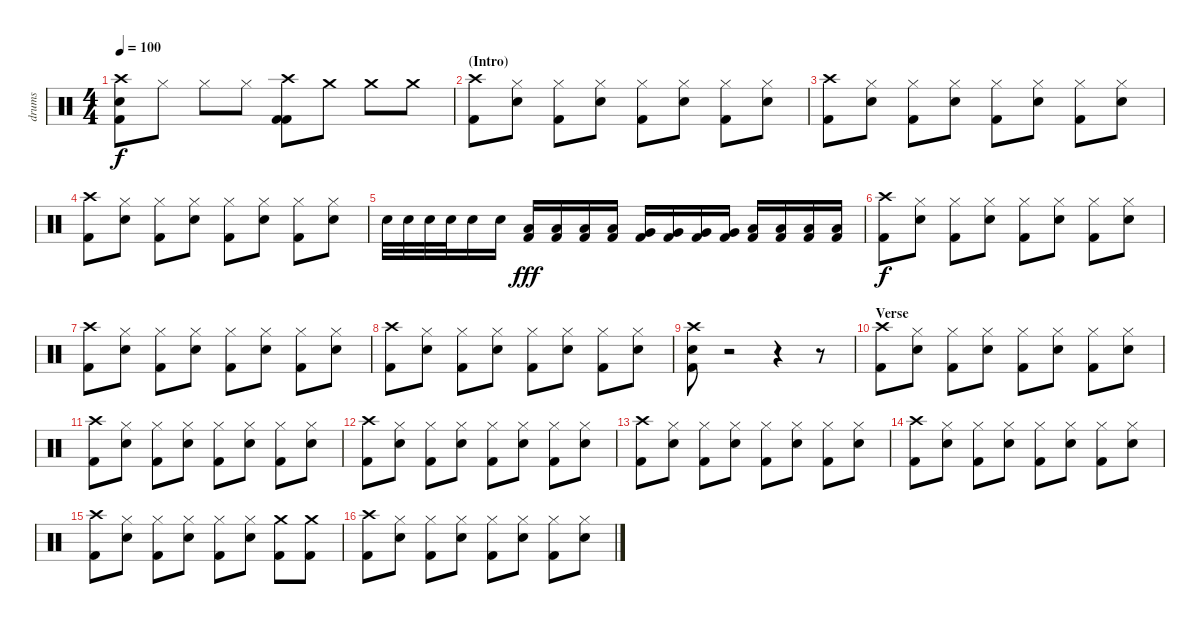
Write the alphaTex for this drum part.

\track ("drums" "drums") {instrument percussion}
\staff {score}
\articulation defaults
\ts (4 4)
\tempo 100
\clef neutral
\ks c
("Crash high (hit)" "Snare (hit) 2" "Kick (hit) 2").8{dy f} "Hi-Hat (closed)".8 "Hi-Hat (closed)".8 "Hi-Hat (closed)".8 ("Crash high (hit)" "Kick (hit) 2" "Kick (hit) 2").8 "Crash medium (hit)".8 "Crash medium (hit)".8 "Crash medium (hit)".8 |
\section ("" "(Intro)")
("Crash high (hit)" "Kick (hit) 2").8 ("Hi-Hat (closed)" "Snare (hit) 2").8 ("Hi-Hat (closed)" "Kick (hit) 2").8 ("Hi-Hat (closed)" "Snare (hit) 2").8 ("Hi-Hat (closed)" "Kick (hit) 2").8 ("Hi-Hat (closed)" "Snare (hit) 2").8 ("Hi-Hat (closed)" "Kick (hit) 2").8 ("Hi-Hat (closed)" "Snare (hit) 2").8 |
("Crash high (hit)" "Kick (hit) 2").8 ("Hi-Hat (closed)" "Snare (hit) 2").8 ("Hi-Hat (closed)" "Kick (hit) 2").8 ("Hi-Hat (closed)" "Snare (hit) 2").8 ("Hi-Hat (closed)" "Kick (hit) 2").8 ("Hi-Hat (closed)" "Snare (hit) 2").8 ("Hi-Hat (closed)" "Kick (hit) 2").8 ("Hi-Hat (closed)" "Snare (hit) 2").8 |
("Crash high (hit)" "Kick (hit) 2").8 ("Hi-Hat (closed)" "Snare (hit) 2").8 ("Hi-Hat (closed)" "Kick (hit) 2").8 ("Hi-Hat (closed)" "Snare (hit) 2").8 ("Hi-Hat (closed)" "Kick (hit) 2").8 ("Hi-Hat (closed)" "Snare (hit) 2").8 ("Hi-Hat (closed)" "Kick (hit) 2").8 ("Hi-Hat (closed)" "Snare (hit) 2").8 |
"Snare (hit) 2".32 "Snare (hit) 2".32 "Snare (hit) 2".32 "Snare (hit) 2".32 "Snare (hit) 2".16 "Snare (hit) 2".16 ("Low Tom (hit)" "Kick (hit) 2").16{dy fff} ("Low Tom (hit)" "Kick (hit) 2").16 ("Low Tom (hit)" "Kick (hit) 2").16 ("Low Tom (hit)" "Kick (hit) 2").16 ("Very Low Tom (hit)" "Kick (hit) 2").16 ("Very Low Tom (hit)" "Kick (hit) 2").16 ("Very Low Tom (hit)" "Kick (hit) 2").16 ("Very Low Tom (hit)" "Kick (hit) 2").16 ("Low Floor Tom (hit)" "Kick (hit) 2").16 ("Low Floor Tom (hit)" "Kick (hit) 2").16 ("Low Floor Tom (hit)" "Kick (hit) 2").16 ("Low Floor Tom (hit)" "Kick (hit) 2").16 |
("Crash high (hit)" "Kick (hit) 2").8{dy f} ("Hi-Hat (closed)" "Snare (hit) 2").8 ("Hi-Hat (closed)" "Kick (hit) 2").8 ("Hi-Hat (closed)" "Snare (hit) 2").8 ("Hi-Hat (closed)" "Kick (hit) 2").8 ("Hi-Hat (closed)" "Snare (hit) 2").8 ("Hi-Hat (closed)" "Kick (hit) 2").8 ("Hi-Hat (closed)" "Snare (hit) 2").8 |
("Crash high (hit)" "Kick (hit) 2").8 ("Hi-Hat (closed)" "Snare (hit) 2").8 ("Hi-Hat (closed)" "Kick (hit) 2").8 ("Hi-Hat (closed)" "Snare (hit) 2").8 ("Hi-Hat (closed)" "Kick (hit) 2").8 ("Hi-Hat (closed)" "Snare (hit) 2").8 ("Hi-Hat (closed)" "Kick (hit) 2").8 ("Hi-Hat (closed)" "Snare (hit) 2").8 |
("Crash high (hit)" "Kick (hit) 2").8 ("Hi-Hat (closed)" "Snare (hit) 2").8 ("Hi-Hat (closed)" "Kick (hit) 2").8 ("Hi-Hat (closed)" "Snare (hit) 2").8 ("Hi-Hat (closed)" "Kick (hit) 2").8 ("Hi-Hat (closed)" "Snare (hit) 2").8 ("Hi-Hat (closed)" "Kick (hit) 2").8 ("Hi-Hat (closed)" "Snare (hit) 2").8 |
("Crash high (hit)" "Snare (hit) 2" "Kick (hit) 2").8 r.2 r.4 r.8 |
\section ("" "Verse")
("Crash high (hit)" "Kick (hit) 2").8 ("Hi-Hat (closed)" "Snare (hit) 2").8 ("Hi-Hat (closed)" "Kick (hit) 2").8 ("Hi-Hat (closed)" "Snare (hit) 2").8 ("Hi-Hat (closed)" "Kick (hit) 2").8 ("Hi-Hat (closed)" "Snare (hit) 2").8 ("Hi-Hat (closed)" "Kick (hit) 2").8 ("Hi-Hat (closed)" "Snare (hit) 2").8 |
("Crash high (hit)" "Kick (hit) 2").8 ("Hi-Hat (closed)" "Snare (hit) 2").8 ("Hi-Hat (closed)" "Kick (hit) 2").8 ("Hi-Hat (closed)" "Snare (hit) 2").8 ("Hi-Hat (closed)" "Kick (hit) 2").8 ("Hi-Hat (closed)" "Snare (hit) 2").8 ("Hi-Hat (closed)" "Kick (hit) 2").8 ("Hi-Hat (closed)" "Snare (hit) 2").8 |
("Crash high (hit)" "Kick (hit) 2").8 ("Hi-Hat (closed)" "Snare (hit) 2").8 ("Hi-Hat (closed)" "Kick (hit) 2").8 ("Hi-Hat (closed)" "Snare (hit) 2").8 ("Hi-Hat (closed)" "Kick (hit) 2").8 ("Hi-Hat (closed)" "Snare (hit) 2").8 ("Hi-Hat (closed)" "Kick (hit) 2").8 ("Hi-Hat (closed)" "Snare (hit) 2").8 |
("Crash high (hit)" "Kick (hit) 2").8 ("Hi-Hat (closed)" "Snare (hit) 2").8 ("Hi-Hat (closed)" "Kick (hit) 2").8 ("Hi-Hat (closed)" "Snare (hit) 2").8 ("Hi-Hat (closed)" "Kick (hit) 2").8 ("Hi-Hat (closed)" "Snare (hit) 2").8 ("Hi-Hat (closed)" "Kick (hit) 2").8 ("Hi-Hat (closed)" "Snare (hit) 2").8 |
("Crash high (hit)" "Kick (hit) 2").8 ("Hi-Hat (closed)" "Snare (hit) 2").8 ("Hi-Hat (closed)" "Kick (hit) 2").8 ("Hi-Hat (closed)" "Snare (hit) 2").8 ("Hi-Hat (closed)" "Kick (hit) 2").8 ("Hi-Hat (closed)" "Snare (hit) 2").8 ("Hi-Hat (closed)" "Kick (hit) 2").8 ("Hi-Hat (closed)" "Snare (hit) 2").8 |
("Crash high (hit)" "Kick (hit) 2").8 ("Hi-Hat (closed)" "Snare (hit) 2").8 ("Hi-Hat (closed)" "Kick (hit) 2").8 ("Hi-Hat (closed)" "Snare (hit) 2").8 ("Hi-Hat (closed)" "Kick (hit) 2").8 ("Hi-Hat (closed)" "Snare (hit) 2").8 ("Crash medium (hit)" "Kick (hit) 2").8 ("Crash medium (hit)" "Kick (hit) 2").8 |
("Crash high (hit)" "Kick (hit) 2").8 ("Hi-Hat (closed)" "Snare (hit) 2").8 ("Hi-Hat (closed)" "Kick (hit) 2").8 ("Hi-Hat (closed)" "Snare (hit) 2").8 ("Hi-Hat (closed)" "Kick (hit) 2").8 ("Hi-Hat (closed)" "Snare (hit) 2").8 ("Hi-Hat (closed)" "Kick (hit) 2").8 ("Hi-Hat (closed)" "Snare (hit) 2").8
